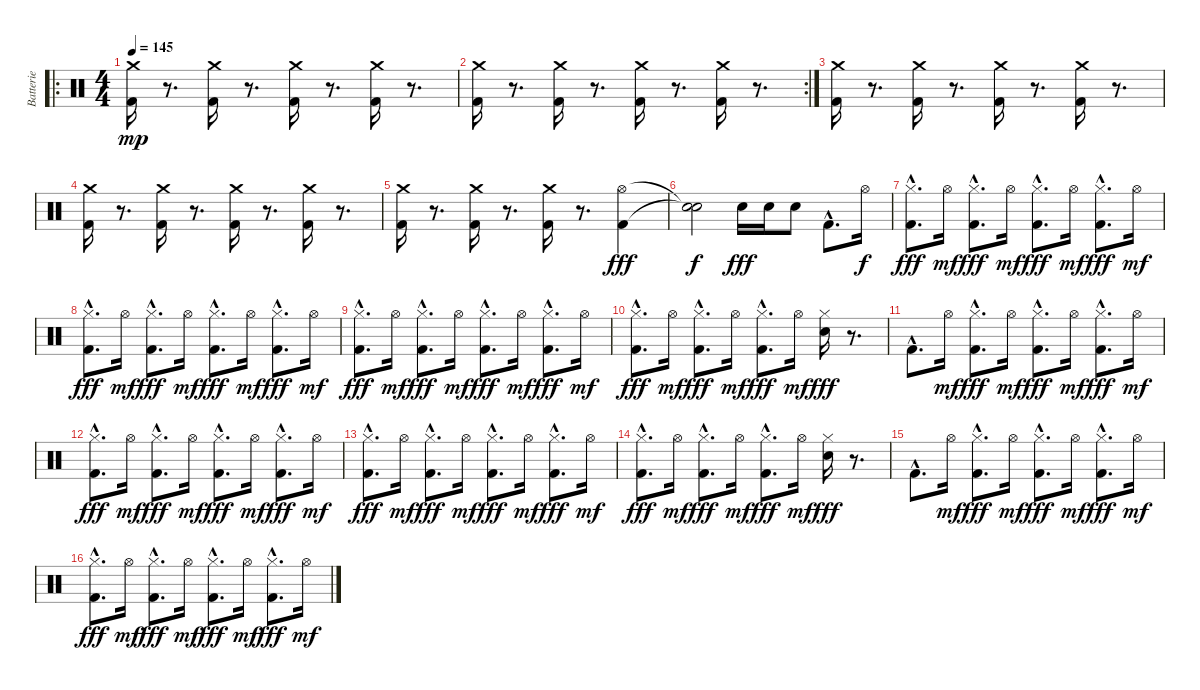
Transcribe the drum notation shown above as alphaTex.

\track ("Batterie" "Batterie") {instrument percussion}
\staff {score}
\articulation defaults
\ro
\ts (4 4)
\tempo 145
\clef neutral
\ks c
("Kick (hit) 2" "Crash medium (hit)").16{dy mp} r.8{d} ("Kick (hit) 2" "Crash medium (hit)").16 r.8{d} ("Kick (hit) 2" "Crash medium (hit)").16 r.8{d} ("Kick (hit) 2" "Crash medium (hit)").16 r.8{d} |
\rc 2
("Kick (hit) 2" "Crash medium (hit)").16 r.8{d} ("Kick (hit) 2" "Crash medium (hit)").16 r.8{d} ("Kick (hit) 2" "Crash medium (hit)").16 r.8{d} ("Kick (hit) 2" "Crash medium (hit)").16 r.8{d} |
("Kick (hit) 2" "Crash medium (hit)").16 r.8{d} ("Kick (hit) 2" "Crash medium (hit)").16 r.8{d} ("Kick (hit) 2" "Crash medium (hit)").16 r.8{d} ("Kick (hit) 2" "Crash medium (hit)").16 r.8{d} |
("Kick (hit) 2" "Crash medium (hit)").16 r.8{d} ("Kick (hit) 2" "Crash medium (hit)").16 r.8{d} ("Kick (hit) 2" "Crash medium (hit)").16 r.8{d} ("Kick (hit) 2" "Crash medium (hit)").16 r.8{d} |
("Kick (hit) 2" "Crash medium (hit)").16 r.8{d} ("Kick (hit) 2" "Crash medium (hit)").16 r.8{d} ("Kick (hit) 2" "Crash medium (hit)").16 r.8{d} ("Hi-Hat (open)" "Kick (hit) 2").4{dy fff} |
("Snare (hit)"{t} "Snare (hit)"{t}).2{dy f} "Electric Snare (hit)".16{dy fff} "Electric Snare (hit)".16 "Electric Snare (hit)".8 "Kick (hit) 2"{hac}.8{d} "Hi-Hat (open)".16{dy f} |
("Hi-Hat (closed)"{hac} "Kick (hit) 2"{hac}).8{d dy fff} "Hi-Hat (open)".16{dy mf} ("Hi-Hat (closed)"{hac} "Kick (hit) 2"{hac}).8{d dy fff} "Hi-Hat (open)".16{dy mf} ("Hi-Hat (closed)"{hac} "Kick (hit) 2"{hac}).8{d dy fff} "Hi-Hat (open)".16{dy mf} ("Hi-Hat (closed)"{hac} "Kick (hit) 2"{hac}).8{d dy fff} "Hi-Hat (open)".16{dy mf} |
("Hi-Hat (closed)"{hac} "Kick (hit) 2"{hac}).8{d dy fff} "Hi-Hat (open)".16{dy mf} ("Hi-Hat (closed)"{hac} "Kick (hit) 2"{hac}).8{d dy fff} "Hi-Hat (open)".16{dy mf} ("Hi-Hat (closed)"{hac} "Kick (hit) 2"{hac}).8{d dy fff} "Hi-Hat (open)".16{dy mf} ("Hi-Hat (closed)"{hac} "Kick (hit) 2"{hac}).8{d dy fff} "Hi-Hat (open)".16{dy mf} |
("Hi-Hat (closed)"{hac} "Kick (hit) 2"{hac}).8{d dy fff} "Hi-Hat (open)".16{dy mf} ("Hi-Hat (closed)"{hac} "Kick (hit) 2"{hac}).8{d dy fff} "Hi-Hat (open)".16{dy mf} ("Hi-Hat (closed)"{hac} "Kick (hit) 2"{hac}).8{d dy fff} "Hi-Hat (open)".16{dy mf} ("Hi-Hat (closed)"{hac} "Kick (hit) 2"{hac}).8{d dy fff} "Hi-Hat (open)".16{dy mf} |
("Hi-Hat (closed)"{hac} "Kick (hit) 2"{hac}).8{d dy fff} "Hi-Hat (open)".16{dy mf} ("Hi-Hat (closed)"{hac} "Kick (hit) 2"{hac}).8{d dy fff} "Hi-Hat (open)".16{dy mf} ("Hi-Hat (closed)"{hac} "Kick (hit) 2"{hac}).8{d dy fff} "Hi-Hat (open)".16{dy mf} ("Hi-Hat (closed)" "Electric Snare (hit)").16{dy fff} r.8{d} |
"Kick (hit) 2"{hac}.8{d} "Hi-Hat (open)".16{dy mf} ("Hi-Hat (closed)"{hac} "Kick (hit) 2"{hac}).8{d dy fff} "Hi-Hat (open)".16{dy mf} ("Hi-Hat (closed)"{hac} "Kick (hit) 2"{hac}).8{d dy fff} "Hi-Hat (open)".16{dy mf} ("Hi-Hat (closed)"{hac} "Kick (hit) 2"{hac}).8{d dy fff} "Hi-Hat (open)".16{dy mf} |
("Hi-Hat (closed)"{hac} "Kick (hit) 2"{hac}).8{d dy fff} "Hi-Hat (open)".16{dy mf} ("Hi-Hat (closed)"{hac} "Kick (hit) 2"{hac}).8{d dy fff} "Hi-Hat (open)".16{dy mf} ("Hi-Hat (closed)"{hac} "Kick (hit) 2"{hac}).8{d dy fff} "Hi-Hat (open)".16{dy mf} ("Hi-Hat (closed)"{hac} "Kick (hit) 2"{hac}).8{d dy fff} "Hi-Hat (open)".16{dy mf} |
("Hi-Hat (closed)"{hac} "Kick (hit) 2"{hac}).8{d dy fff} "Hi-Hat (open)".16{dy mf} ("Hi-Hat (closed)"{hac} "Kick (hit) 2"{hac}).8{d dy fff} "Hi-Hat (open)".16{dy mf} ("Hi-Hat (closed)"{hac} "Kick (hit) 2"{hac}).8{d dy fff} "Hi-Hat (open)".16{dy mf} ("Hi-Hat (closed)"{hac} "Kick (hit) 2"{hac}).8{d dy fff} "Hi-Hat (open)".16{dy mf} |
("Hi-Hat (closed)"{hac} "Kick (hit) 2"{hac}).8{d dy fff} "Hi-Hat (open)".16{dy mf} ("Hi-Hat (closed)"{hac} "Kick (hit) 2"{hac}).8{d dy fff} "Hi-Hat (open)".16{dy mf} ("Hi-Hat (closed)"{hac} "Kick (hit) 2"{hac}).8{d dy fff} "Hi-Hat (open)".16{dy mf} ("Hi-Hat (closed)" "Electric Snare (hit)").16{dy fff} r.8{d} |
"Kick (hit) 2"{hac}.8{d} "Hi-Hat (open)".16{dy mf} ("Hi-Hat (closed)"{hac} "Kick (hit) 2"{hac}).8{d dy fff} "Hi-Hat (open)".16{dy mf} ("Hi-Hat (closed)"{hac} "Kick (hit) 2"{hac}).8{d dy fff} "Hi-Hat (open)".16{dy mf} ("Hi-Hat (closed)"{hac} "Kick (hit) 2"{hac}).8{d dy fff} "Hi-Hat (open)".16{dy mf} |
("Hi-Hat (closed)"{hac} "Kick (hit) 2"{hac}).8{d dy fff} "Hi-Hat (open)".16{dy mf} ("Hi-Hat (closed)"{hac} "Kick (hit) 2"{hac}).8{d dy fff} "Hi-Hat (open)".16{dy mf} ("Hi-Hat (closed)"{hac} "Kick (hit) 2"{hac}).8{d dy fff} "Hi-Hat (open)".16{dy mf} ("Hi-Hat (closed)"{hac} "Kick (hit) 2"{hac}).8{d dy fff} "Hi-Hat (open)".16{dy mf}
